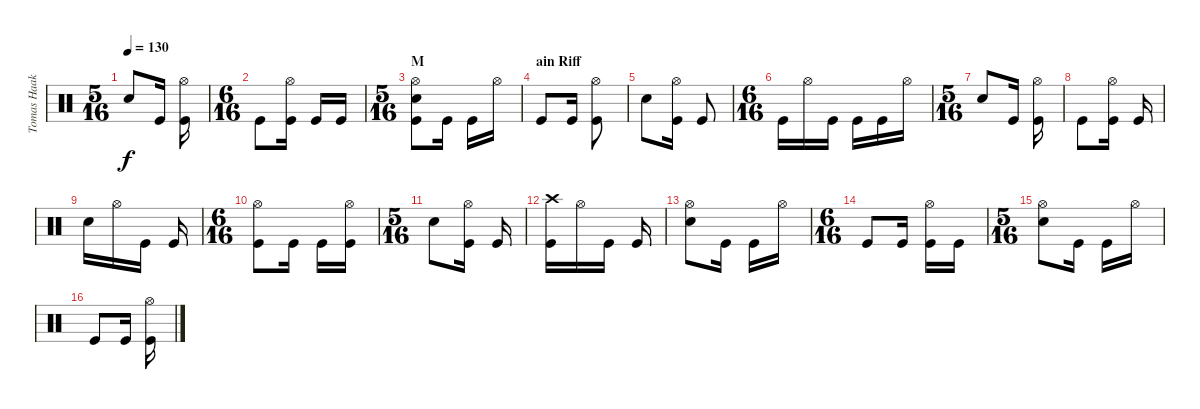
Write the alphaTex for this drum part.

\track ("Tomas Haake - Drums" "Tomas Haak") {instrument percussion}
\staff {score}
\articulation defaults
\ts (5 16)
\tempo 130
\clef neutral
\ks c "Electric Snare (hit)".8{dy f} "Kick (hit)".16
("Hi-Hat (open)" "Kick (hit)").16 |
\ts (6 16)
"Kick (hit)".8 ("Hi-Hat (open)" "Kick (hit)").16 "Kick (hit)".16 "Kick (hit)".16 |
\ts (5 16)
\section ("" "M")
("Hi-Hat (open)" "Electric Snare (hit)" "Kick (hit)").8 "Kick (hit)".16 "Kick (hit)".16 "Hi-Hat (open)".16 |
\section ("" "ain Riff")
"Kick (hit)".8 "Kick (hit)".16 ("Hi-Hat (open)" "Kick (hit)").8 |
"Electric Snare (hit)".8 ("Hi-Hat (open)" "Kick (hit)").16 "Kick (hit)".8 |
\ts (6 16)
"Kick (hit)".16 "Hi-Hat (open)".16 "Kick (hit)".16 "Kick (hit)".16 "Kick (hit)".16 "Hi-Hat (open)".16 |
\ts (5 16)
"Electric Snare (hit)".8 "Kick (hit)".16 ("Hi-Hat (open)" "Kick (hit)").16 |
"Kick (hit)".8 ("Hi-Hat (open)" "Kick (hit)").16 "Kick (hit)".16 |
"Electric Snare (hit)".16 "Hi-Hat (open)".16 "Kick (hit)".16 "Kick (hit)".16 |
\ts (6 16)
("Hi-Hat (open)" "Kick (hit)").8 "Kick (hit)".16 "Kick (hit)".16 ("Hi-Hat (open)" "Kick (hit)").16 |
\ts (5 16)
"Electric Snare (hit)".8 ("Hi-Hat (open)" "Kick (hit)").16 "Kick (hit)".16 |
("Crash high (hit)" "Kick (hit)").16 "Hi-Hat (open)".16 "Kick (hit)".16 "Kick (hit)".16 |
("Hi-Hat (open)" "Electric Snare (hit)").8 "Kick (hit)".16 "Kick (hit)".16 "Hi-Hat (open)".16 |
\ts (6 16)
"Kick (hit)".8 "Kick (hit)".16 ("Hi-Hat (open)" "Kick (hit)").16 "Kick (hit)".16 |
\ts (5 16)
("Electric Snare (hit)" "Hi-Hat (open)").8 "Kick (hit)".16 "Kick (hit)".16 "Hi-Hat (open)".16 |
"Kick (hit)".8 "Kick (hit)".16 ("Hi-Hat (open)" "Kick (hit)").16
